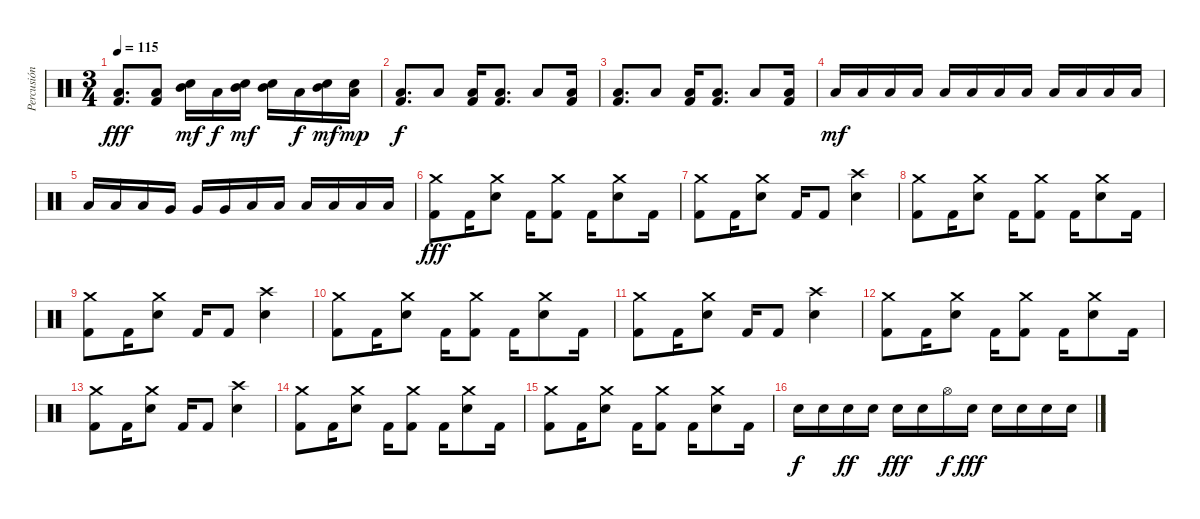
\track ("Percusión" "Percusión") {instrument percussion}
\staff {score}
\articulation defaults
\ts (3 4)
\tempo 115
\clef neutral
\ks c
("Low Floor Tom (hit)" "Kick (hit) 2").8{d dy fff} ("Low Floor Tom (hit)" "Kick (hit) 2").8 ("Mid Tom (hit)" "Electric Snare (hit)").16{dy mf} "Low Tom (hit)".16{dy f} ("Mid Tom (hit)" "Electric Snare (hit)").16{dy mf} ("Mid Tom (hit)" "Electric Snare (hit)").16 "Low Tom (hit)".16{dy f} ("Mid Tom (hit)" "Electric Snare (hit)").16{dy mf} ("Low Tom (hit)" "Electric Snare (hit)").16{dy mp} |
("Low Floor Tom (hit)" "Kick (hit) 2").8{d dy f} "Low Floor Tom (hit)".8 ("Low Floor Tom (hit)" "Kick (hit) 2").16 ("Low Floor Tom (hit)" "Kick (hit) 2").8{d} "Low Floor Tom (hit)".8 ("Low Floor Tom (hit)" "Kick (hit) 2").16 |
("Low Floor Tom (hit)" "Kick (hit) 2").8{d} "Low Floor Tom (hit)".8 ("Low Floor Tom (hit)" "Kick (hit) 2").16 ("Low Floor Tom (hit)" "Kick (hit) 2").8{d} "Low Floor Tom (hit)".8 ("Low Floor Tom (hit)" "Kick (hit) 2").16 |
"Low Tom (hit)".16{dy mf} "Low Tom (hit)".16 "Low Tom (hit)".16 "Low Tom (hit)".16 "Low Tom (hit)".16 "Low Tom (hit)".16 "Low Tom (hit)".16 "Low Tom (hit)".16 "Low Tom (hit)".16 "Low Tom (hit)".16 "Low Tom (hit)".16 "Low Tom (hit)".16 |
"Low Tom (hit)".16 "Low Tom (hit)".16 "Low Tom (hit)".16 "Very Low Tom (hit)".16 "Very Low Tom (hit)".16 "Very Low Tom (hit)".16 "Low Floor Tom (hit)".16 "Low Floor Tom (hit)".16 "Low Floor Tom (hit)".16 "Low Floor Tom (hit)".16 "Low Floor Tom (hit)".16 "Low Floor Tom (hit)".16 |
("Crash medium (hit)" "Kick (hit) 2").8{dy fff} "Kick (hit) 2".16 ("Crash medium (hit)" "Electric Snare (hit)").8 "Kick (hit) 2".16 ("Crash medium (hit)" "Kick (hit) 2").8 "Kick (hit) 2".16 ("Crash medium (hit)" "Electric Snare (hit)").8 "Kick (hit) 2".16 |
("Crash medium (hit)" "Kick (hit) 2").8 "Kick (hit) 2".16 ("Crash medium (hit)" "Electric Snare (hit)").8 "Kick (hit) 2".16 "Kick (hit) 2".8 ("Crash high (hit)" "Electric Snare (hit)").4 |
("Crash medium (hit)" "Kick (hit) 2").8 "Kick (hit) 2".16 ("Crash medium (hit)" "Electric Snare (hit)").8 "Kick (hit) 2".16 ("Crash medium (hit)" "Kick (hit) 2").8 "Kick (hit) 2".16 ("Crash medium (hit)" "Electric Snare (hit)").8 "Kick (hit) 2".16 |
("Crash medium (hit)" "Kick (hit) 2").8 "Kick (hit) 2".16 ("Crash medium (hit)" "Electric Snare (hit)").8 "Kick (hit) 2".16 "Kick (hit) 2".8 ("Crash high (hit)" "Electric Snare (hit)").4 |
("Crash medium (hit)" "Kick (hit) 2").8 "Kick (hit) 2".16 ("Crash medium (hit)" "Electric Snare (hit)").8 "Kick (hit) 2".16 ("Crash medium (hit)" "Kick (hit) 2").8 "Kick (hit) 2".16 ("Crash medium (hit)" "Electric Snare (hit)").8 "Kick (hit) 2".16 |
("Crash medium (hit)" "Kick (hit) 2").8 "Kick (hit) 2".16 ("Crash medium (hit)" "Electric Snare (hit)").8 "Kick (hit) 2".16 "Kick (hit) 2".8 ("Crash high (hit)" "Electric Snare (hit)").4 |
("Crash medium (hit)" "Kick (hit) 2").8 "Kick (hit) 2".16 ("Crash medium (hit)" "Electric Snare (hit)").8 "Kick (hit) 2".16 ("Crash medium (hit)" "Kick (hit) 2").8 "Kick (hit) 2".16 ("Crash medium (hit)" "Electric Snare (hit)").8 "Kick (hit) 2".16 |
("Crash medium (hit)" "Kick (hit) 2").8 "Kick (hit) 2".16 ("Crash medium (hit)" "Electric Snare (hit)").8 "Kick (hit) 2".16 "Kick (hit) 2".8 ("Crash high (hit)" "Electric Snare (hit)").4 |
("Crash medium (hit)" "Kick (hit) 2").8 "Kick (hit) 2".16 ("Crash medium (hit)" "Electric Snare (hit)").8 "Kick (hit) 2".16 ("Crash medium (hit)" "Kick (hit) 2").8 "Kick (hit) 2".16 ("Crash medium (hit)" "Electric Snare (hit)").8 "Kick (hit) 2".16 |
("Crash medium (hit)" "Kick (hit) 2").8 "Kick (hit) 2".16 ("Crash medium (hit)" "Electric Snare (hit)").8 "Kick (hit) 2".16 ("Crash medium (hit)" "Kick (hit) 2").8 "Kick (hit) 2".16 ("Crash medium (hit)" "Electric Snare (hit)").8 "Kick (hit) 2".16 |
"Electric Snare (hit)".16{dy f} "Electric Snare (hit)".16 "Electric Snare (hit)".16{dy ff} "Electric Snare (hit)".16 "Electric Snare (hit)".16{dy fff} "Electric Snare (hit)".16 "Hi-Hat (open)".16{dy f} "Electric Snare (hit)".16{dy fff} "Electric Snare (hit)".16 "Electric Snare (hit)".16 "Electric Snare (hit)".16 "Electric Snare (hit)".16
